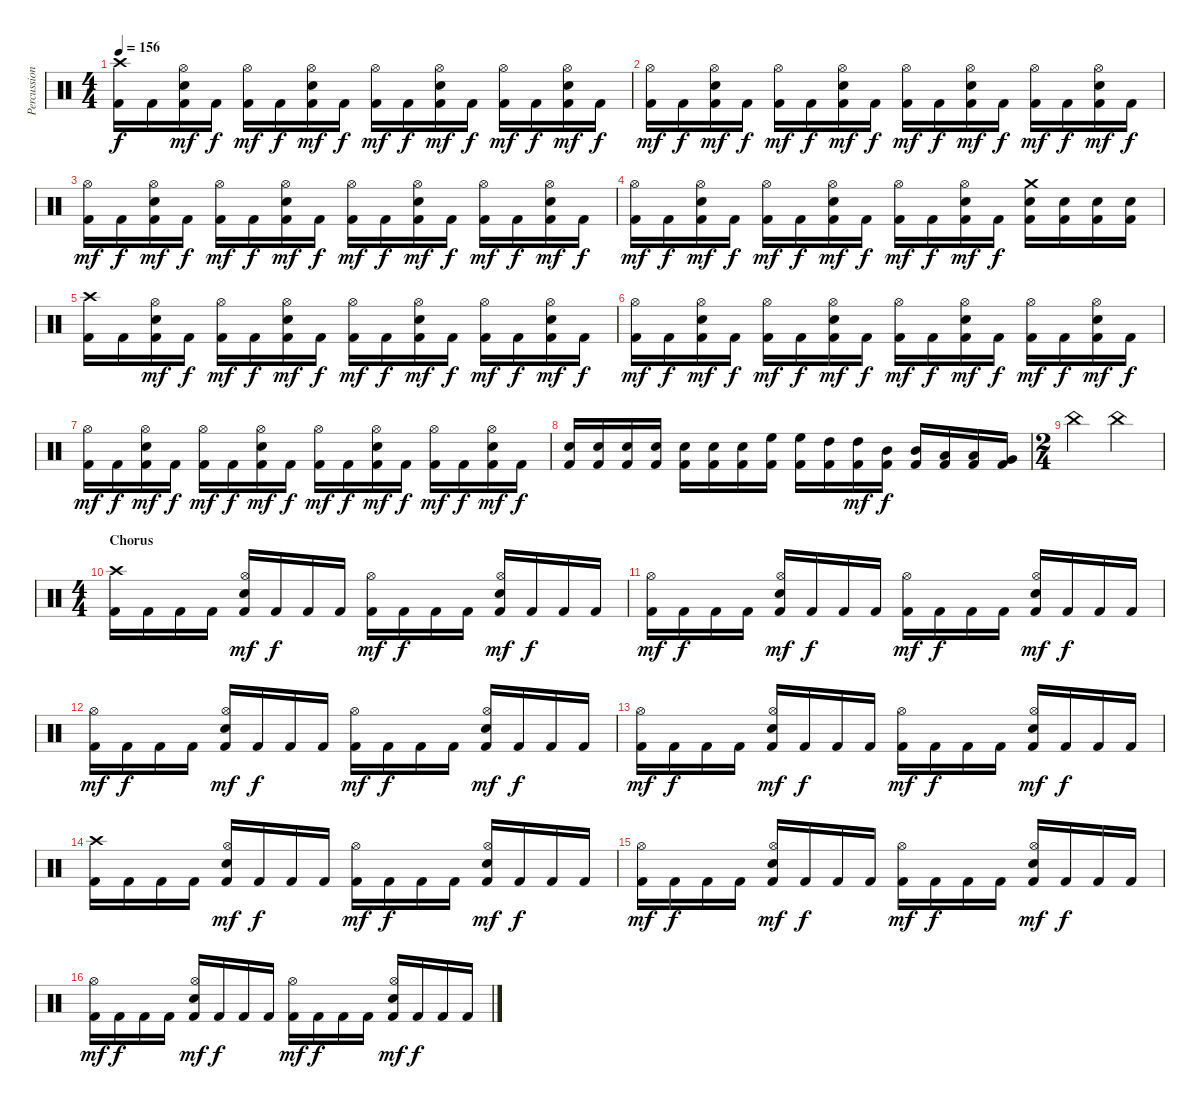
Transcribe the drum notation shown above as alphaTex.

\track ("Percussion" "Percussion") {instrument percussion}
\staff {score}
\articulation defaults
\ts (4 4)
\tempo 156
\clef neutral
\ks c
("Crash high (hit)" "Kick (hit) 2").16{dy f} "Kick (hit) 2".16 ("Hi-Hat (open)" "Electric Snare (hit)" "Kick (hit) 2").16{dy mf} "Kick (hit) 2".16{dy f} ("Hi-Hat (open)" "Kick (hit) 2").16{dy mf} "Kick (hit) 2".16{dy f} ("Hi-Hat (open)" "Electric Snare (hit)" "Kick (hit) 2").16{dy mf} "Kick (hit) 2".16{dy f} ("Hi-Hat (open)" "Kick (hit) 2").16{dy mf} "Kick (hit) 2".16{dy f} ("Hi-Hat (open)" "Electric Snare (hit)" "Kick (hit) 2").16{dy mf} "Kick (hit) 2".16{dy f} ("Hi-Hat (open)" "Kick (hit) 2").16{dy mf} "Kick (hit) 2".16{dy f} ("Hi-Hat (open)" "Electric Snare (hit)" "Kick (hit) 2").16{dy mf} "Kick (hit) 2".16{dy f} |
("Hi-Hat (open)" "Kick (hit) 2").16{dy mf} "Kick (hit) 2".16{dy f} ("Hi-Hat (open)" "Electric Snare (hit)" "Kick (hit) 2").16{dy mf} "Kick (hit) 2".16{dy f} ("Hi-Hat (open)" "Kick (hit) 2").16{dy mf} "Kick (hit) 2".16{dy f} ("Hi-Hat (open)" "Electric Snare (hit)" "Kick (hit) 2").16{dy mf} "Kick (hit) 2".16{dy f} ("Hi-Hat (open)" "Kick (hit) 2").16{dy mf} "Kick (hit) 2".16{dy f} ("Hi-Hat (open)" "Electric Snare (hit)" "Kick (hit) 2").16{dy mf} "Kick (hit) 2".16{dy f} ("Hi-Hat (open)" "Kick (hit) 2").16{dy mf} "Kick (hit) 2".16{dy f} ("Hi-Hat (open)" "Electric Snare (hit)" "Kick (hit) 2").16{dy mf} "Kick (hit) 2".16{dy f} |
("Hi-Hat (open)" "Kick (hit) 2").16{dy mf} "Kick (hit) 2".16{dy f} ("Hi-Hat (open)" "Electric Snare (hit)" "Kick (hit) 2").16{dy mf} "Kick (hit) 2".16{dy f} ("Hi-Hat (open)" "Kick (hit) 2").16{dy mf} "Kick (hit) 2".16{dy f} ("Hi-Hat (open)" "Electric Snare (hit)" "Kick (hit) 2").16{dy mf} "Kick (hit) 2".16{dy f} ("Hi-Hat (open)" "Kick (hit) 2").16{dy mf} "Kick (hit) 2".16{dy f} ("Hi-Hat (open)" "Electric Snare (hit)" "Kick (hit) 2").16{dy mf} "Kick (hit) 2".16{dy f} ("Hi-Hat (open)" "Kick (hit) 2").16{dy mf} "Kick (hit) 2".16{dy f} ("Hi-Hat (open)" "Electric Snare (hit)" "Kick (hit) 2").16{dy mf} "Kick (hit) 2".16{dy f} |
("Hi-Hat (open)" "Kick (hit) 2").16{dy mf} "Kick (hit) 2".16{dy f} ("Hi-Hat (open)" "Electric Snare (hit)" "Kick (hit) 2").16{dy mf} "Kick (hit) 2".16{dy f} ("Hi-Hat (open)" "Kick (hit) 2").16{dy mf} "Kick (hit) 2".16{dy f} ("Hi-Hat (open)" "Electric Snare (hit)" "Kick (hit) 2").16{dy mf} "Kick (hit) 2".16{dy f} ("Hi-Hat (open)" "Kick (hit) 2").16{dy mf} "Kick (hit) 2".16{dy f} ("Hi-Hat (open)" "Electric Snare (hit)" "Kick (hit) 2").16{dy mf} "Kick (hit) 2".16{dy f} ("Crash medium (hit)" "Electric Snare (hit)" "Kick (hit) 2").16 ("Electric Snare (hit)" "Kick (hit) 2").16 ("Electric Snare (hit)" "Kick (hit) 2").16 ("Electric Snare (hit)" "Kick (hit) 2").16 |
("Crash high (hit)" "Kick (hit) 2").16 "Kick (hit) 2".16 ("Hi-Hat (open)" "Electric Snare (hit)" "Kick (hit) 2").16{dy mf} "Kick (hit) 2".16{dy f} ("Hi-Hat (open)" "Kick (hit) 2").16{dy mf} "Kick (hit) 2".16{dy f} ("Hi-Hat (open)" "Electric Snare (hit)" "Kick (hit) 2").16{dy mf} "Kick (hit) 2".16{dy f} ("Hi-Hat (open)" "Kick (hit) 2").16{dy mf} "Kick (hit) 2".16{dy f} ("Hi-Hat (open)" "Electric Snare (hit)" "Kick (hit) 2").16{dy mf} "Kick (hit) 2".16{dy f} ("Hi-Hat (open)" "Kick (hit) 2").16{dy mf} "Kick (hit) 2".16{dy f} ("Hi-Hat (open)" "Electric Snare (hit)" "Kick (hit) 2").16{dy mf} "Kick (hit) 2".16{dy f} |
("Hi-Hat (open)" "Kick (hit) 2").16{dy mf} "Kick (hit) 2".16{dy f} ("Hi-Hat (open)" "Electric Snare (hit)" "Kick (hit) 2").16{dy mf} "Kick (hit) 2".16{dy f} ("Hi-Hat (open)" "Kick (hit) 2").16{dy mf} "Kick (hit) 2".16{dy f} ("Hi-Hat (open)" "Electric Snare (hit)" "Kick (hit) 2").16{dy mf} "Kick (hit) 2".16{dy f} ("Hi-Hat (open)" "Kick (hit) 2").16{dy mf} "Kick (hit) 2".16{dy f} ("Hi-Hat (open)" "Electric Snare (hit)" "Kick (hit) 2").16{dy mf} "Kick (hit) 2".16{dy f} ("Hi-Hat (open)" "Kick (hit) 2").16{dy mf} "Kick (hit) 2".16{dy f} ("Hi-Hat (open)" "Electric Snare (hit)" "Kick (hit) 2").16{dy mf} "Kick (hit) 2".16{dy f} |
("Hi-Hat (open)" "Kick (hit) 2").16{dy mf} "Kick (hit) 2".16{dy f} ("Hi-Hat (open)" "Electric Snare (hit)" "Kick (hit) 2").16{dy mf} "Kick (hit) 2".16{dy f} ("Hi-Hat (open)" "Kick (hit) 2").16{dy mf} "Kick (hit) 2".16{dy f} ("Hi-Hat (open)" "Electric Snare (hit)" "Kick (hit) 2").16{dy mf} "Kick (hit) 2".16{dy f} ("Hi-Hat (open)" "Kick (hit) 2").16{dy mf} "Kick (hit) 2".16{dy f} ("Hi-Hat (open)" "Electric Snare (hit)" "Kick (hit) 2").16{dy mf} "Kick (hit) 2".16{dy f} ("Hi-Hat (open)" "Kick (hit) 2").16{dy mf} "Kick (hit) 2".16{dy f} ("Hi-Hat (open)" "Electric Snare (hit)" "Kick (hit) 2").16{dy mf} "Kick (hit) 2".16{dy f} |
("Electric Snare (hit)" "Kick (hit) 2").16 ("Electric Snare (hit)" "Kick (hit) 2").16 ("Electric Snare (hit)" "Kick (hit) 2").16 ("Electric Snare (hit)" "Kick (hit) 2").16 ("Electric Snare (hit)" "Kick (hit) 2").16 ("Electric Snare (hit)" "Kick (hit) 2").16 ("Electric Snare (hit)" "Kick (hit) 2").16 ("High Floor Tom (hit)" "Kick (hit) 2").16 ("High Floor Tom (hit)" "Kick (hit) 2").16 ("High Tom (hit)" "Kick (hit) 2").16 ("High Tom (hit)" "Kick (hit) 2").16{dy mf} ("Mid Tom (hit)" "Kick (hit) 2").16{dy f} ("Mid Tom (hit)" "Kick (hit) 2").16 ("Low Tom (hit)" "Kick (hit) 2").16 ("Low Tom (hit)" "Kick (hit) 2").16 ("Very Low Tom (hit)" "Kick (hit) 2").16 |
\ts (2 4)
"China (hit)".4 "China (hit)".4 |
\ts (4 4)
\section ("" "Chorus")
("Crash high (hit)" "Kick (hit) 2").16 "Kick (hit) 2".16 "Kick (hit) 2".16 "Kick (hit) 2".16 ("Hi-Hat (open)" "Electric Snare (hit)" "Kick (hit) 2").16{dy mf} "Kick (hit) 2".16{dy f} "Kick (hit) 2".16 "Kick (hit) 2".16 ("Hi-Hat (open)" "Kick (hit) 2").16{dy mf} "Kick (hit) 2".16{dy f} "Kick (hit) 2".16 "Kick (hit) 2".16 ("Hi-Hat (open)" "Electric Snare (hit)" "Kick (hit) 2").16{dy mf} "Kick (hit) 2".16{dy f} "Kick (hit) 2".16 "Kick (hit) 2".16 |
("Hi-Hat (open)" "Kick (hit) 2").16{dy mf} "Kick (hit) 2".16{dy f} "Kick (hit) 2".16 "Kick (hit) 2".16 ("Hi-Hat (open)" "Electric Snare (hit)" "Kick (hit) 2").16{dy mf} "Kick (hit) 2".16{dy f} "Kick (hit) 2".16 "Kick (hit) 2".16 ("Hi-Hat (open)" "Kick (hit) 2").16{dy mf} "Kick (hit) 2".16{dy f} "Kick (hit) 2".16 "Kick (hit) 2".16 ("Hi-Hat (open)" "Electric Snare (hit)" "Kick (hit) 2").16{dy mf} "Kick (hit) 2".16{dy f} "Kick (hit) 2".16 "Kick (hit) 2".16 |
("Hi-Hat (open)" "Kick (hit) 2").16{dy mf} "Kick (hit) 2".16{dy f} "Kick (hit) 2".16 "Kick (hit) 2".16 ("Hi-Hat (open)" "Electric Snare (hit)" "Kick (hit) 2").16{dy mf} "Kick (hit) 2".16{dy f} "Kick (hit) 2".16 "Kick (hit) 2".16 ("Hi-Hat (open)" "Kick (hit) 2").16{dy mf} "Kick (hit) 2".16{dy f} "Kick (hit) 2".16 "Kick (hit) 2".16 ("Hi-Hat (open)" "Electric Snare (hit)" "Kick (hit) 2").16{dy mf} "Kick (hit) 2".16{dy f} "Kick (hit) 2".16 "Kick (hit) 2".16 |
("Hi-Hat (open)" "Kick (hit) 2").16{dy mf} "Kick (hit) 2".16{dy f} "Kick (hit) 2".16 "Kick (hit) 2".16 ("Hi-Hat (open)" "Electric Snare (hit)" "Kick (hit) 2").16{dy mf} "Kick (hit) 2".16{dy f} "Kick (hit) 2".16 "Kick (hit) 2".16 ("Hi-Hat (open)" "Kick (hit) 2").16{dy mf} "Kick (hit) 2".16{dy f} "Kick (hit) 2".16 "Kick (hit) 2".16 ("Hi-Hat (open)" "Electric Snare (hit)" "Kick (hit) 2").16{dy mf} "Kick (hit) 2".16{dy f} "Kick (hit) 2".16 "Kick (hit) 2".16 |
("Crash high (hit)" "Kick (hit) 2").16 "Kick (hit) 2".16 "Kick (hit) 2".16 "Kick (hit) 2".16 ("Hi-Hat (open)" "Electric Snare (hit)" "Kick (hit) 2").16{dy mf} "Kick (hit) 2".16{dy f} "Kick (hit) 2".16 "Kick (hit) 2".16 ("Hi-Hat (open)" "Kick (hit) 2").16{dy mf} "Kick (hit) 2".16{dy f} "Kick (hit) 2".16 "Kick (hit) 2".16 ("Hi-Hat (open)" "Electric Snare (hit)" "Kick (hit) 2").16{dy mf} "Kick (hit) 2".16{dy f} "Kick (hit) 2".16 "Kick (hit) 2".16 |
("Hi-Hat (open)" "Kick (hit) 2").16{dy mf} "Kick (hit) 2".16{dy f} "Kick (hit) 2".16 "Kick (hit) 2".16 ("Hi-Hat (open)" "Electric Snare (hit)" "Kick (hit) 2").16{dy mf} "Kick (hit) 2".16{dy f} "Kick (hit) 2".16 "Kick (hit) 2".16 ("Hi-Hat (open)" "Kick (hit) 2").16{dy mf} "Kick (hit) 2".16{dy f} "Kick (hit) 2".16 "Kick (hit) 2".16 ("Hi-Hat (open)" "Electric Snare (hit)" "Kick (hit) 2").16{dy mf} "Kick (hit) 2".16{dy f} "Kick (hit) 2".16 "Kick (hit) 2".16 |
("Hi-Hat (open)" "Kick (hit) 2").16{dy mf} "Kick (hit) 2".16{dy f} "Kick (hit) 2".16 "Kick (hit) 2".16 ("Hi-Hat (open)" "Electric Snare (hit)" "Kick (hit) 2").16{dy mf} "Kick (hit) 2".16{dy f} "Kick (hit) 2".16 "Kick (hit) 2".16 ("Hi-Hat (open)" "Kick (hit) 2").16{dy mf} "Kick (hit) 2".16{dy f} "Kick (hit) 2".16 "Kick (hit) 2".16 ("Hi-Hat (open)" "Electric Snare (hit)" "Kick (hit) 2").16{dy mf} "Kick (hit) 2".16{dy f} "Kick (hit) 2".16 "Kick (hit) 2".16
